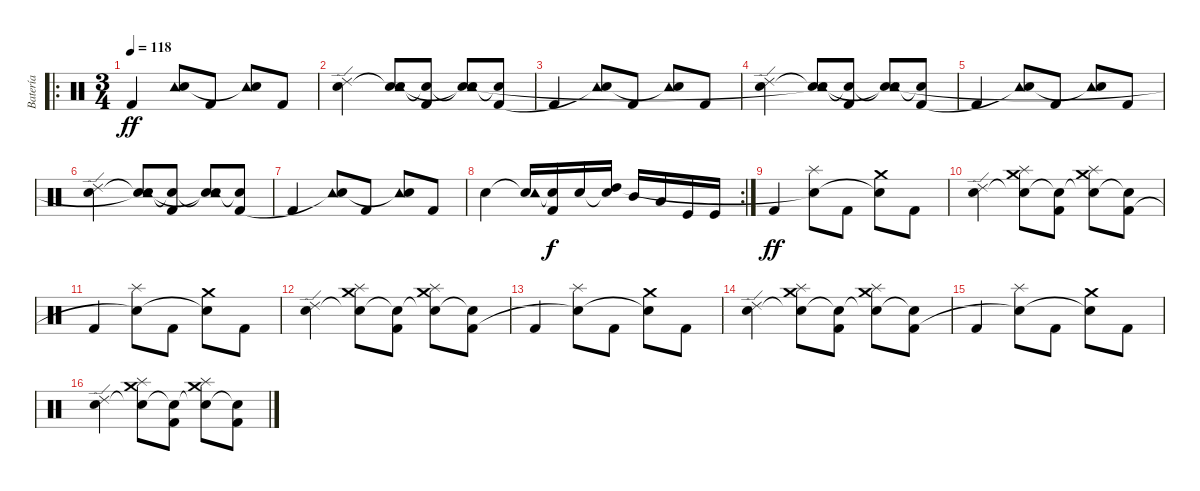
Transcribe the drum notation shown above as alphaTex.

\track ("Batería" "Batería") {instrument percussion}
\staff {score}
\articulation defaults
\ro
\ts (3 4)
\tempo 118
\clef neutral
\ks c "Kick (hit) 2".4{dy ff volume 16}
("Tambourine (hit)" "Snare (hit)"{t}).8 "Kick (hit) 2".8 ("Tambourine (hit)" "Snare (hit)"{t}).8 "Kick (hit) 2".8 |
("Snare (hit) 2" "Ride (edge) 2").4 ("Snare (hit)"{t} "Tambourine (hit)" "Snare (hit)").8 ("Snare (hit)"{t} "Kick (hit) 2").8 ("Snare (hit)"{t} "Tambourine (hit)" "Snare (hit)"{t}).8 ("Snare (hit)"{t} "Kick (hit) 2").8 |
"Kick (hit) 2".4 ("Tambourine (hit)" "Snare (hit)"{t}).8 "Kick (hit) 2".8 ("Tambourine (hit)" "Snare (hit)"{t}).8 "Kick (hit) 2".8 |
("Snare (hit) 2" "Ride (edge) 2").4 ("Snare (hit)"{t} "Tambourine (hit)" "Snare (hit)"{t}).8 ("Snare (hit)"{t} "Kick (hit) 2").8 ("Snare (hit)"{t} "Tambourine (hit)" "Snare (hit)"{t}).8 ("Snare (hit)"{t} "Kick (hit) 2").8 |
"Kick (hit) 2".4 ("Tambourine (hit)" "Snare (hit)"{t}).8 "Kick (hit) 2".8 ("Tambourine (hit)" "Snare (hit)"{t}).8 "Kick (hit) 2".8 |
("Snare (hit) 2" "Ride (edge) 2").4 ("Snare (hit)"{t} "Tambourine (hit)" "Snare (hit)"{t}).8 ("Snare (hit)"{t} "Kick (hit) 2").8 ("Snare (hit)"{t} "Tambourine (hit)" "Snare (hit)"{t}).8 ("Snare (hit)"{t} "Kick (hit) 2").8 |
"Kick (hit) 2".4 ("Tambourine (hit)" "Snare (hit)"{t}).8 "Kick (hit) 2".8 ("Tambourine (hit)" "Snare (hit)"{t}).8 "Kick (hit) 2".8 |
\rc 2 "Snare (hit) 2".4
("Snare (hit)"{t} "Tambourine (hit)").16 ("Snare (hit)"{t} "Kick (hit) 2").16{dy f} "Snare (hit) 2".16 ("Snare (hit)"{t} "High Tom (hit)").16 "Mid Tom (hit)".16 "Low Tom (hit)".16 "Kick (hit)".16 "Kick (hit)".16 |
"Kick (hit) 2".4{dy ff volume 16} ("Splash (hit)" "Snare (hit)"{t}).8 "Kick (hit) 2".8 ("Crash medium (hit)" "Snare (hit)"{t}).8 "Kick (hit) 2".8 |
("Snare (hit) 2" "Ride (edge) 2").4 ("Snare (hit)"{t} "Splash (hit)" "Crash medium (hit)").8 ("Snare (hit)"{t} "Kick (hit) 2").8 ("Snare (hit)"{t} "Crash medium (hit)" "Splash (hit)").8 ("Snare (hit)"{t} "Kick (hit) 2").8 |
"Kick (hit) 2".4{volume 16} ("Splash (hit)" "Snare (hit)"{t}).8 "Kick (hit) 2".8 ("Crash medium (hit)" "Snare (hit)"{t}).8 "Kick (hit) 2".8 |
("Snare (hit) 2" "Ride (edge) 2").4 ("Snare (hit)"{t} "Splash (hit)" "Crash medium (hit)").8 ("Snare (hit)"{t} "Kick (hit) 2").8 ("Snare (hit)"{t} "Crash medium (hit)" "Splash (hit)").8 ("Snare (hit)"{t} "Kick (hit) 2").8 |
"Kick (hit) 2".4{volume 16} ("Splash (hit)" "Snare (hit)"{t}).8 "Kick (hit) 2".8 ("Crash medium (hit)" "Snare (hit)"{t}).8 "Kick (hit) 2".8 |
("Snare (hit) 2" "Ride (edge) 2").4 ("Snare (hit)"{t} "Splash (hit)" "Crash medium (hit)").8 ("Snare (hit)"{t} "Kick (hit) 2").8 ("Snare (hit)"{t} "Crash medium (hit)" "Splash (hit)").8 ("Snare (hit)"{t} "Kick (hit) 2").8 |
"Kick (hit) 2".4{volume 16} ("Splash (hit)" "Snare (hit)"{t}).8 "Kick (hit) 2".8 ("Crash medium (hit)" "Snare (hit)"{t}).8 "Kick (hit) 2".8 |
("Snare (hit) 2" "Ride (edge) 2").4 ("Snare (hit)"{t} "Splash (hit)" "Crash medium (hit)").8 ("Snare (hit)"{t} "Kick (hit) 2").8 ("Snare (hit)"{t} "Crash medium (hit)" "Splash (hit)").8 ("Snare (hit)"{t} "Kick (hit) 2").8
